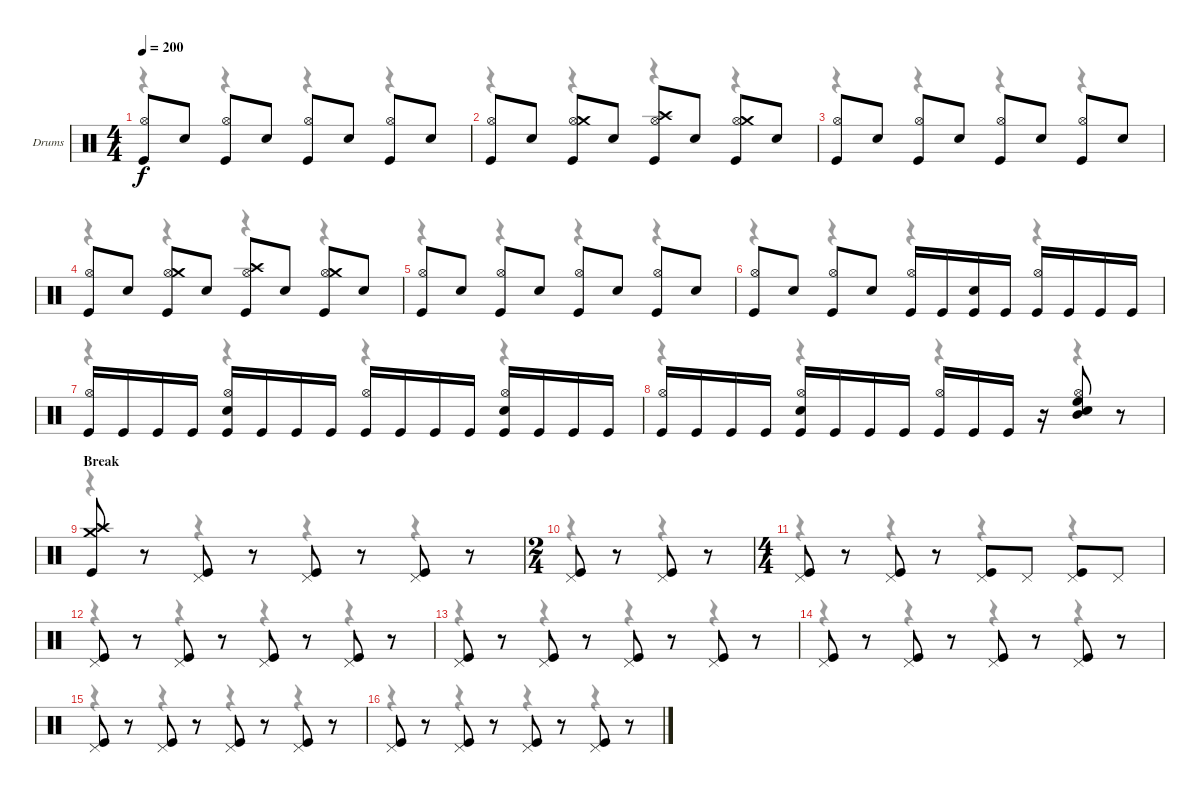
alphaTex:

\bracketExtendMode nobrackets
\firstSystemTrackNameOrientation horizontal
\otherSystemsTrackNameOrientation horizontal
\track ("Drumkit" "Drums") {instrument percussion}
\staff {score}
\articulation defaults
\voice
\ts (4 4)
\beaming (8 2 2 2 2)
\tempo 200
\clef neutral
\ks c
("Hi-Hat (open)" "Kick (hit)").8{dy f} "Snare (hit) 2".8 ("Hi-Hat (open)" "Kick (hit)").8 "Snare (hit) 2".8 ("Hi-Hat (open)" "Kick (hit)").8 "Snare (hit) 2".8 ("Hi-Hat (open)" "Kick (hit)").8 "Snare (hit) 2".8 |
("Kick (hit)" "Hi-Hat (open)").8 "Snare (hit) 2".8 ("Kick (hit)" "Hi-Hat (open)" "Crash medium (hit)").8 "Snare (hit) 2".8 ("Kick (hit)" "Hi-Hat (open)" "Crash high (hit)").8 "Snare (hit) 2".8 ("Kick (hit)" "Hi-Hat (open)" "Crash medium (hit)").8 "Snare (hit) 2".8 |
("Hi-Hat (open)" "Kick (hit)").8 "Snare (hit) 2".8 ("Hi-Hat (open)" "Kick (hit)").8 "Snare (hit) 2".8 ("Hi-Hat (open)" "Kick (hit)").8 "Snare (hit) 2".8 ("Hi-Hat (open)" "Kick (hit)").8 "Snare (hit) 2".8 |
("Kick (hit)" "Hi-Hat (open)").8 "Snare (hit) 2".8 ("Kick (hit)" "Hi-Hat (open)" "Crash medium (hit)").8 "Snare (hit) 2".8 ("Kick (hit)" "Hi-Hat (open)" "Crash high (hit)").8 "Snare (hit) 2".8 ("Kick (hit)" "Hi-Hat (open)" "Crash medium (hit)").8 "Snare (hit) 2".8 |
("Hi-Hat (open)" "Kick (hit)").8 "Snare (hit) 2".8 ("Hi-Hat (open)" "Kick (hit)").8 "Snare (hit) 2".8 ("Hi-Hat (open)" "Kick (hit)").8 "Snare (hit) 2".8 ("Hi-Hat (open)" "Kick (hit)").8 "Snare (hit) 2".8 |
("Kick (hit)" "Hi-Hat (open)").8 "Snare (hit) 2".8 ("Kick (hit)" "Hi-Hat (open)").8 "Snare (hit) 2".8 ("Kick (hit)" "Hi-Hat (open)").16 "Kick (hit)".16 ("Kick (hit)" "Snare (hit) 2").16 "Kick (hit)".16 ("Kick (hit)" "Hi-Hat (open)").16 "Kick (hit)".16 "Kick (hit)".16 "Kick (hit)".16 |
("Kick (hit)" "Hi-Hat (open)").16 "Kick (hit)".16 "Kick (hit)".16 "Kick (hit)".16 ("Kick (hit)" "Hi-Hat (open)" "Snare (hit) 2").16 "Kick (hit)".16 "Kick (hit)".16 "Kick (hit)".16 ("Kick (hit)" "Hi-Hat (open)").16 "Kick (hit)".16 "Kick (hit)".16 "Kick (hit)".16 ("Kick (hit)" "Hi-Hat (open)" "Snare (hit) 2").16 "Kick (hit)".16 "Kick (hit)".16 "Kick (hit)".16 |
("Kick (hit)" "Hi-Hat (open)").16 "Kick (hit)".16 "Kick (hit)".16 "Kick (hit)".16 ("Kick (hit)" "Snare (hit) 2" "Hi-Hat (open)").16 "Kick (hit)".16 "Kick (hit)".16 "Kick (hit)".16 ("Kick (hit)" "Hi-Hat (open)").16 "Kick (hit)".16 "Kick (hit)".16 r.16 ("High Floor Tom (hit)" "Snare (hit) 2" "Hi-Hat (open)" "Mid Tom (hit)").8 r.8 |
\section ("" "Break")
("Crash high (hit)" "Crash medium (hit)" "Kick (hit)").8 r.8 ("Pedal Hi-Hat (hit)" "Kick (hit)").8 r.8 ("Pedal Hi-Hat (hit)" "Kick (hit)").8 r.8 ("Pedal Hi-Hat (hit)" "Kick (hit)").8 r.8 |
\ts (2 4)
\beaming (8 1 1 1 1)
("Kick (hit)" "Pedal Hi-Hat (hit)").8 r.8 ("Kick (hit)" "Pedal Hi-Hat (hit)").8 r.8 |
\ts (4 4)
\beaming (8 2 2 2 2)
("Kick (hit)" "Pedal Hi-Hat (hit)").8 r.8 ("Kick (hit)" "Pedal Hi-Hat (hit)").8 r.8 ("Pedal Hi-Hat (hit)" "Kick (hit)").8 "Pedal Hi-Hat (hit)".8 ("Pedal Hi-Hat (hit)" "Kick (hit)").8 "Pedal Hi-Hat (hit)".8 |
("Kick (hit)" "Pedal Hi-Hat (hit)").8 r.8 ("Kick (hit)" "Pedal Hi-Hat (hit)").8 r.8 ("Kick (hit)" "Pedal Hi-Hat (hit)").8 r.8 ("Kick (hit)" "Pedal Hi-Hat (hit)").8 r.8 |
("Pedal Hi-Hat (hit)" "Kick (hit)").8 r.8 ("Pedal Hi-Hat (hit)" "Kick (hit)").8 r.8 ("Pedal Hi-Hat (hit)" "Kick (hit)").8 r.8 ("Pedal Hi-Hat (hit)" "Kick (hit)").8 r.8 |
("Pedal Hi-Hat (hit)" "Kick (hit)").8 r.8 ("Pedal Hi-Hat (hit)" "Kick (hit)").8 r.8 ("Pedal Hi-Hat (hit)" "Kick (hit)").8 r.8 ("Pedal Hi-Hat (hit)" "Kick (hit)").8 r.8 |
("Pedal Hi-Hat (hit)" "Kick (hit)").8 r.8 ("Pedal Hi-Hat (hit)" "Kick (hit)").8 r.8 ("Pedal Hi-Hat (hit)" "Kick (hit)").8 r.8 ("Pedal Hi-Hat (hit)" "Kick (hit)").8 r.8 |
("Pedal Hi-Hat (hit)" "Kick (hit)").8 r.8 ("Pedal Hi-Hat (hit)" "Kick (hit)").8 r.8 ("Pedal Hi-Hat (hit)" "Kick (hit)").8 r.8 ("Pedal Hi-Hat (hit)" "Kick (hit)").8 r.8
\voice
\clef neutral
\ottava regular
\simile none
\ks c
r.4{dy mf} r.4 r.4 r.4 |
r.4 r.4 r.4 r.4 |
r.4 r.4 r.4 r.4 |
r.4 r.4 r.4 r.4 |
r.4 r.4 r.4 r.4 |
r.4 r.4 r.4 r.4 |
r.4 r.4 r.4 r.4 |
r.4 r.4 r.4 r.4 |
r.4 r.4 r.4 r.4 |
r.4 r.4 |
r.4 r.4 r.4 r.4 |
r.4 r.4 r.4 r.4 |
r.4 r.4 r.4 r.4 |
r.4 r.4 r.4 r.4 |
r.4 r.4 r.4 r.4 |
r.4 r.4 r.4 r.4
